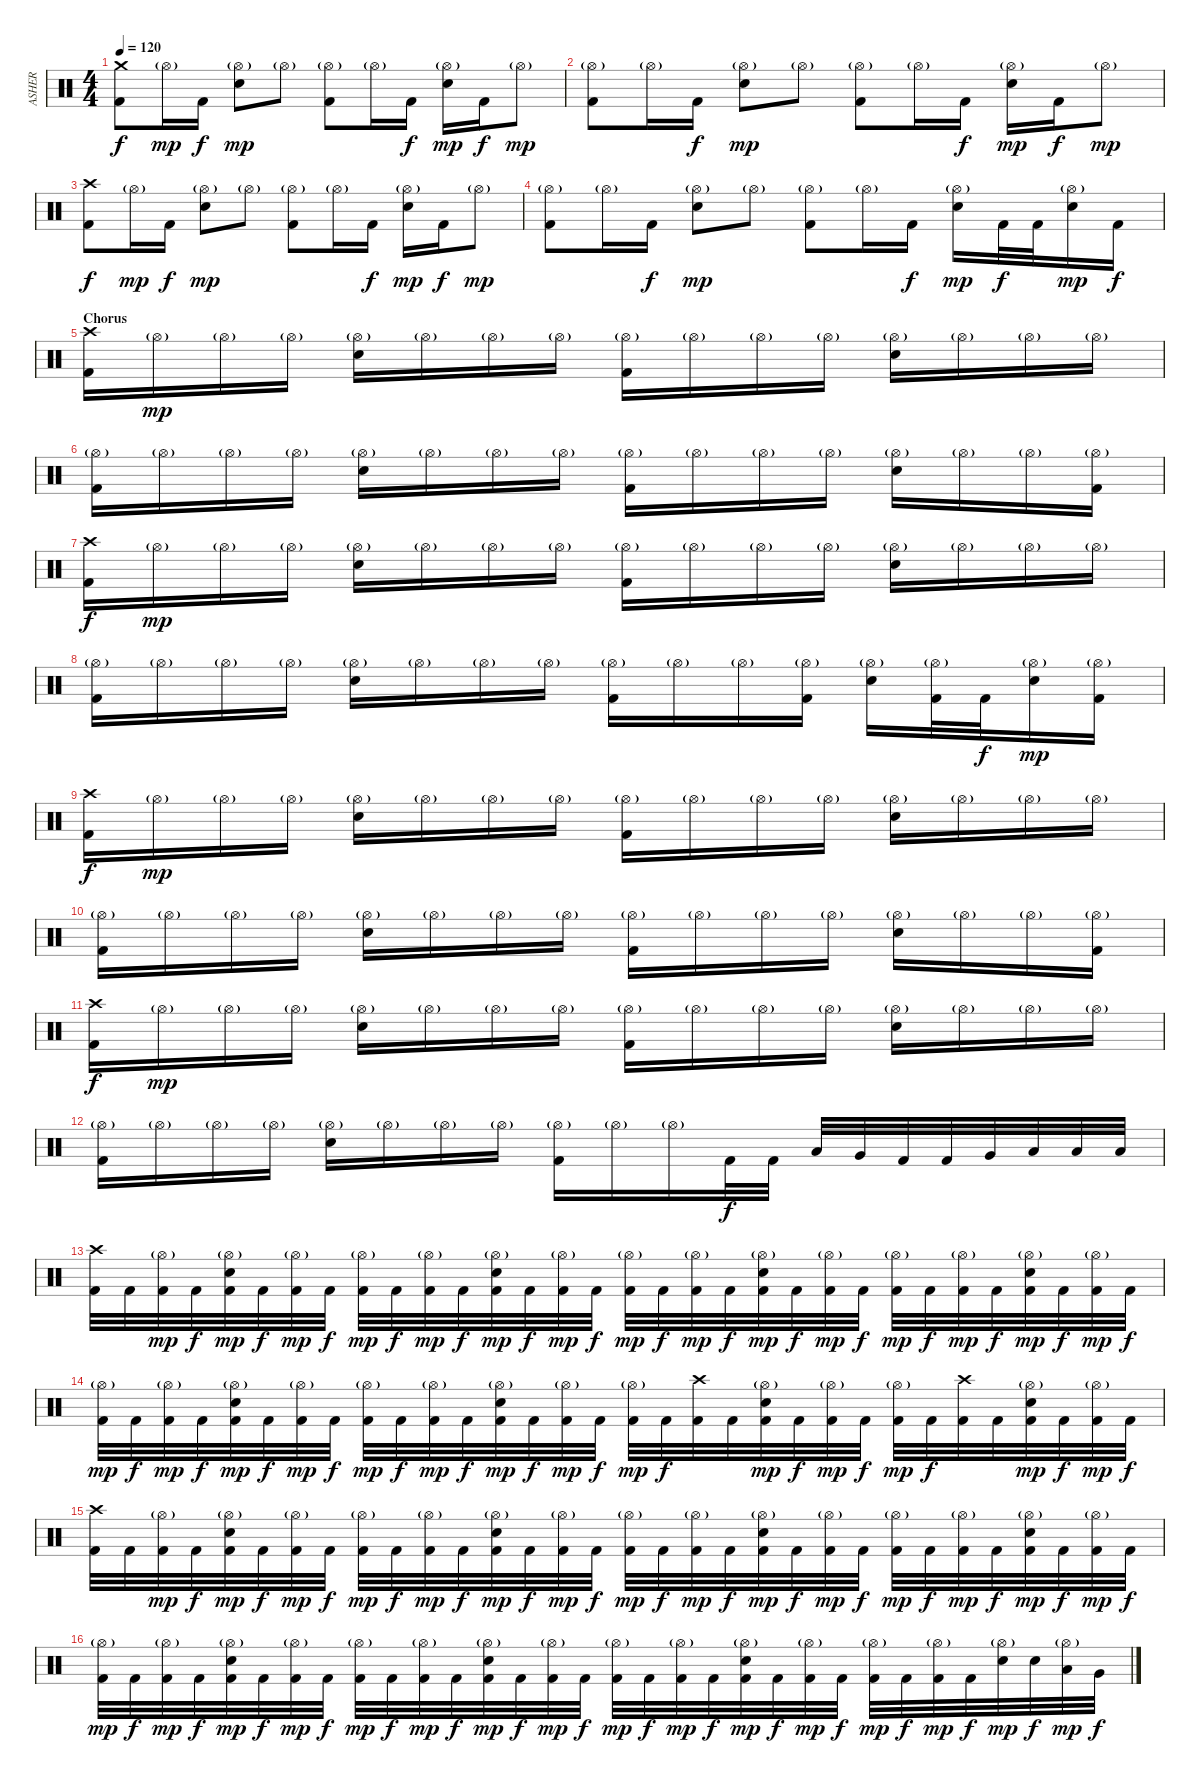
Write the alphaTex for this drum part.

\track ("ASHER" "ASHER") {instrument percussion}
\staff {score}
\articulation defaults
\ts (4 4)
\tempo 120
\clef neutral
\ks c
("Crash medium (hit)" "Kick (hit) 2").8{dy f} "Hi-Hat (open)"{g}.16{dy mp} "Kick (hit) 2".16{dy f} ("Hi-Hat (open)"{g} "Electric Snare (hit)").8{dy mp} "Hi-Hat (open)"{g}.8 ("Hi-Hat (open)"{g} "Kick (hit) 2").8 "Hi-Hat (open)"{g}.16 "Kick (hit) 2".16{dy f} ("Hi-Hat (open)"{g} "Electric Snare (hit)").16{dy mp} "Kick (hit) 2".16{dy f} "Hi-Hat (open)"{g}.8{dy mp} |
("Hi-Hat (open)"{g} "Kick (hit) 2").8 "Hi-Hat (open)"{g}.16 "Kick (hit) 2".16{dy f} ("Hi-Hat (open)"{g} "Electric Snare (hit)").8{dy mp} "Hi-Hat (open)"{g}.8 ("Hi-Hat (open)"{g} "Kick (hit) 2").8 "Hi-Hat (open)"{g}.16 "Kick (hit) 2".16{dy f} ("Hi-Hat (open)"{g} "Electric Snare (hit)").16{dy mp} "Kick (hit) 2".16{dy f} "Hi-Hat (open)"{g}.8{dy mp} |
("Crash high (hit)" "Kick (hit) 2").8{dy f} "Hi-Hat (open)"{g}.16{dy mp} "Kick (hit) 2".16{dy f} ("Hi-Hat (open)"{g} "Electric Snare (hit)").8{dy mp} "Hi-Hat (open)"{g}.8 ("Hi-Hat (open)"{g} "Kick (hit) 2").8 "Hi-Hat (open)"{g}.16 "Kick (hit) 2".16{dy f} ("Hi-Hat (open)"{g} "Electric Snare (hit)").16{dy mp} "Kick (hit) 2".16{dy f} "Hi-Hat (open)"{g}.8{dy mp} |
("Hi-Hat (open)"{g} "Kick (hit) 2").8 "Hi-Hat (open)"{g}.16 "Kick (hit) 2".16{dy f} ("Hi-Hat (open)"{g} "Electric Snare (hit)").8{dy mp} "Hi-Hat (open)"{g}.8 ("Hi-Hat (open)"{g} "Kick (hit) 2").8 "Hi-Hat (open)"{g}.16 "Kick (hit) 2".16{dy f} ("Hi-Hat (open)"{g} "Electric Snare (hit)").16{dy mp} "Kick (hit) 2".32{dy f} "Kick (hit) 2".32 ("Hi-Hat (open)"{g} "Electric Snare (hit)").16{dy mp} "Kick (hit) 2".16{dy f} |
\section ("" "Chorus")
("Crash high (hit)" "Kick (hit) 2").16 "Hi-Hat (open)"{g}.16{dy mp} "Hi-Hat (open)"{g}.16 "Hi-Hat (open)"{g}.16 ("Hi-Hat (open)"{g} "Electric Snare (hit)").16 "Hi-Hat (open)"{g}.16 "Hi-Hat (open)"{g}.16 "Hi-Hat (open)"{g}.16 ("Hi-Hat (open)"{g} "Kick (hit) 2").16 "Hi-Hat (open)"{g}.16 "Hi-Hat (open)"{g}.16 "Hi-Hat (open)"{g}.16 ("Hi-Hat (open)"{g} "Electric Snare (hit)").16 "Hi-Hat (open)"{g}.16 "Hi-Hat (open)"{g}.16 "Hi-Hat (open)"{g}.16 |
("Hi-Hat (open)"{g} "Kick (hit) 2").16 "Hi-Hat (open)"{g}.16 "Hi-Hat (open)"{g}.16 "Hi-Hat (open)"{g}.16 ("Hi-Hat (open)"{g} "Electric Snare (hit)").16 "Hi-Hat (open)"{g}.16 "Hi-Hat (open)"{g}.16 "Hi-Hat (open)"{g}.16 ("Hi-Hat (open)"{g} "Kick (hit) 2").16 "Hi-Hat (open)"{g}.16 "Hi-Hat (open)"{g}.16 "Hi-Hat (open)"{g}.16 ("Hi-Hat (open)"{g} "Electric Snare (hit)").16 "Hi-Hat (open)"{g}.16 "Hi-Hat (open)"{g}.16 ("Hi-Hat (open)"{g} "Kick (hit) 2").16 |
("Crash high (hit)" "Kick (hit) 2").16{dy f} "Hi-Hat (open)"{g}.16{dy mp} "Hi-Hat (open)"{g}.16 "Hi-Hat (open)"{g}.16 ("Hi-Hat (open)"{g} "Electric Snare (hit)").16 "Hi-Hat (open)"{g}.16 "Hi-Hat (open)"{g}.16 "Hi-Hat (open)"{g}.16 ("Hi-Hat (open)"{g} "Kick (hit) 2").16 "Hi-Hat (open)"{g}.16 "Hi-Hat (open)"{g}.16 "Hi-Hat (open)"{g}.16 ("Hi-Hat (open)"{g} "Electric Snare (hit)").16 "Hi-Hat (open)"{g}.16 "Hi-Hat (open)"{g}.16 "Hi-Hat (open)"{g}.16 |
("Hi-Hat (open)"{g} "Kick (hit) 2").16 "Hi-Hat (open)"{g}.16 "Hi-Hat (open)"{g}.16 "Hi-Hat (open)"{g}.16 ("Hi-Hat (open)"{g} "Electric Snare (hit)").16 "Hi-Hat (open)"{g}.16 "Hi-Hat (open)"{g}.16 "Hi-Hat (open)"{g}.16 ("Hi-Hat (open)"{g} "Kick (hit) 2").16 "Hi-Hat (open)"{g}.16 "Hi-Hat (open)"{g}.16 ("Hi-Hat (open)"{g} "Kick (hit) 2").16 ("Hi-Hat (open)"{g} "Electric Snare (hit)").16 ("Hi-Hat (open)"{g} "Kick (hit) 2").32 "Kick (hit) 2".32{dy f} ("Hi-Hat (open)"{g} "Electric Snare (hit)").16{dy mp} ("Hi-Hat (open)"{g} "Kick (hit) 2").16 |
("Crash high (hit)" "Kick (hit) 2").16{dy f} "Hi-Hat (open)"{g}.16{dy mp} "Hi-Hat (open)"{g}.16 "Hi-Hat (open)"{g}.16 ("Hi-Hat (open)"{g} "Electric Snare (hit)").16 "Hi-Hat (open)"{g}.16 "Hi-Hat (open)"{g}.16 "Hi-Hat (open)"{g}.16 ("Hi-Hat (open)"{g} "Kick (hit) 2").16 "Hi-Hat (open)"{g}.16 "Hi-Hat (open)"{g}.16 "Hi-Hat (open)"{g}.16 ("Hi-Hat (open)"{g} "Electric Snare (hit)").16 "Hi-Hat (open)"{g}.16 "Hi-Hat (open)"{g}.16 "Hi-Hat (open)"{g}.16 |
("Hi-Hat (open)"{g} "Kick (hit) 2").16 "Hi-Hat (open)"{g}.16 "Hi-Hat (open)"{g}.16 "Hi-Hat (open)"{g}.16 ("Hi-Hat (open)"{g} "Electric Snare (hit)").16 "Hi-Hat (open)"{g}.16 "Hi-Hat (open)"{g}.16 "Hi-Hat (open)"{g}.16 ("Hi-Hat (open)"{g} "Kick (hit) 2").16 "Hi-Hat (open)"{g}.16 "Hi-Hat (open)"{g}.16 "Hi-Hat (open)"{g}.16 ("Hi-Hat (open)"{g} "Electric Snare (hit)").16 "Hi-Hat (open)"{g}.16 "Hi-Hat (open)"{g}.16 ("Hi-Hat (open)"{g} "Kick (hit) 2").16 |
("Crash high (hit)" "Kick (hit) 2").16{dy f} "Hi-Hat (open)"{g}.16{dy mp} "Hi-Hat (open)"{g}.16 "Hi-Hat (open)"{g}.16 ("Hi-Hat (open)"{g} "Electric Snare (hit)").16 "Hi-Hat (open)"{g}.16 "Hi-Hat (open)"{g}.16 "Hi-Hat (open)"{g}.16 ("Hi-Hat (open)"{g} "Kick (hit) 2").16 "Hi-Hat (open)"{g}.16 "Hi-Hat (open)"{g}.16 "Hi-Hat (open)"{g}.16 ("Hi-Hat (open)"{g} "Electric Snare (hit)").16 "Hi-Hat (open)"{g}.16 "Hi-Hat (open)"{g}.16 "Hi-Hat (open)"{g}.16 |
("Hi-Hat (open)"{g} "Kick (hit) 2").16 "Hi-Hat (open)"{g}.16 "Hi-Hat (open)"{g}.16 "Hi-Hat (open)"{g}.16 ("Hi-Hat (open)"{g} "Electric Snare (hit)").16 "Hi-Hat (open)"{g}.16 "Hi-Hat (open)"{g}.16 "Hi-Hat (open)"{g}.16 ("Hi-Hat (open)"{g} "Kick (hit) 2").16 "Hi-Hat (open)"{g}.16 "Hi-Hat (open)"{g}.16 "Kick (hit) 2".32{dy f} "Kick (hit) 2".32 "Low Tom (hit)".32 "Very Low Tom (hit)".32 "Kick (hit) 2".32 "Kick (hit) 2".32 "Very Low Tom (hit)".32 "Low Floor Tom (hit)".32 "Low Floor Tom (hit)".32 "Low Floor Tom (hit)".32 |
("Crash high (hit)" "Kick (hit) 2").32 "Kick (hit) 2".32 ("Hi-Hat (open)"{g} "Kick (hit) 2").32{dy mp} "Kick (hit) 2".32{dy f} ("Hi-Hat (open)"{g} "Electric Snare (hit)" "Kick (hit) 2").32{dy mp} "Kick (hit) 2".32{dy f} ("Hi-Hat (open)"{g} "Kick (hit) 2").32{dy mp} "Kick (hit) 2".32{dy f} ("Hi-Hat (open)"{g} "Kick (hit) 2").32{dy mp} "Kick (hit) 2".32{dy f} ("Hi-Hat (open)"{g} "Kick (hit) 2").32{dy mp} "Kick (hit) 2".32{dy f} ("Hi-Hat (open)"{g} "Electric Snare (hit)" "Kick (hit) 2").32{dy mp} "Kick (hit) 2".32{dy f} ("Hi-Hat (open)"{g} "Kick (hit) 2").32{dy mp} "Kick (hit) 2".32{dy f} ("Hi-Hat (open)"{g} "Kick (hit) 2").32{dy mp} "Kick (hit) 2".32{dy f} ("Hi-Hat (open)"{g} "Kick (hit) 2").32{dy mp} "Kick (hit) 2".32{dy f} ("Hi-Hat (open)"{g} "Electric Snare (hit)" "Kick (hit) 2").32{dy mp} "Kick (hit) 2".32{dy f} ("Hi-Hat (open)"{g} "Kick (hit) 2").32{dy mp} "Kick (hit) 2".32{dy f} ("Hi-Hat (open)"{g} "Kick (hit) 2").32{dy mp} "Kick (hit) 2".32{dy f} ("Hi-Hat (open)"{g} "Kick (hit) 2").32{dy mp} "Kick (hit) 2".32{dy f} ("Hi-Hat (open)"{g} "Electric Snare (hit)" "Kick (hit) 2").32{dy mp} "Kick (hit) 2".32{dy f} ("Hi-Hat (open)"{g} "Kick (hit) 2").32{dy mp} "Kick (hit) 2".32{dy f} |
("Hi-Hat (open)"{g} "Kick (hit) 2").32{dy mp} "Kick (hit) 2".32{dy f} ("Hi-Hat (open)"{g} "Kick (hit) 2").32{dy mp} "Kick (hit) 2".32{dy f} ("Hi-Hat (open)"{g} "Electric Snare (hit)" "Kick (hit) 2").32{dy mp} "Kick (hit) 2".32{dy f} ("Hi-Hat (open)"{g} "Kick (hit) 2").32{dy mp} "Kick (hit) 2".32{dy f} ("Hi-Hat (open)"{g} "Kick (hit) 2").32{dy mp} "Kick (hit) 2".32{dy f} ("Hi-Hat (open)"{g} "Kick (hit) 2").32{dy mp} "Kick (hit) 2".32{dy f} ("Hi-Hat (open)"{g} "Electric Snare (hit)" "Kick (hit) 2").32{dy mp} "Kick (hit) 2".32{dy f} ("Hi-Hat (open)"{g} "Kick (hit) 2").32{dy mp} "Kick (hit) 2".32{dy f} ("Hi-Hat (open)"{g} "Kick (hit) 2").32{dy mp} "Kick (hit) 2".32{dy f} ("Crash high (hit)" "Kick (hit) 2").32 "Kick (hit) 2".32 ("Hi-Hat (open)"{g} "Electric Snare (hit)" "Kick (hit) 2").32{dy mp} "Kick (hit) 2".32{dy f} ("Hi-Hat (open)"{g} "Kick (hit) 2").32{dy mp} "Kick (hit) 2".32{dy f} ("Hi-Hat (open)"{g} "Kick (hit) 2").32{dy mp} "Kick (hit) 2".32{dy f} ("Crash high (hit)" "Kick (hit) 2").32 "Kick (hit) 2".32 ("Hi-Hat (open)"{g} "Electric Snare (hit)" "Kick (hit) 2").32{dy mp} "Kick (hit) 2".32{dy f} ("Hi-Hat (open)"{g} "Kick (hit) 2").32{dy mp} "Kick (hit) 2".32{dy f} |
("Crash high (hit)" "Kick (hit) 2").32 "Kick (hit) 2".32 ("Hi-Hat (open)"{g} "Kick (hit) 2").32{dy mp} "Kick (hit) 2".32{dy f} ("Hi-Hat (open)"{g} "Electric Snare (hit)" "Kick (hit) 2").32{dy mp} "Kick (hit) 2".32{dy f} ("Hi-Hat (open)"{g} "Kick (hit) 2").32{dy mp} "Kick (hit) 2".32{dy f} ("Hi-Hat (open)"{g} "Kick (hit) 2").32{dy mp} "Kick (hit) 2".32{dy f} ("Hi-Hat (open)"{g} "Kick (hit) 2").32{dy mp} "Kick (hit) 2".32{dy f} ("Hi-Hat (open)"{g} "Electric Snare (hit)" "Kick (hit) 2").32{dy mp} "Kick (hit) 2".32{dy f} ("Hi-Hat (open)"{g} "Kick (hit) 2").32{dy mp} "Kick (hit) 2".32{dy f} ("Hi-Hat (open)"{g} "Kick (hit) 2").32{dy mp} "Kick (hit) 2".32{dy f} ("Hi-Hat (open)"{g} "Kick (hit) 2").32{dy mp} "Kick (hit) 2".32{dy f} ("Hi-Hat (open)"{g} "Electric Snare (hit)" "Kick (hit) 2").32{dy mp} "Kick (hit) 2".32{dy f} ("Hi-Hat (open)"{g} "Kick (hit) 2").32{dy mp} "Kick (hit) 2".32{dy f} ("Hi-Hat (open)"{g} "Kick (hit) 2").32{dy mp} "Kick (hit) 2".32{dy f} ("Hi-Hat (open)"{g} "Kick (hit) 2").32{dy mp} "Kick (hit) 2".32{dy f} ("Hi-Hat (open)"{g} "Electric Snare (hit)" "Kick (hit) 2").32{dy mp} "Kick (hit) 2".32{dy f} ("Hi-Hat (open)"{g} "Kick (hit) 2").32{dy mp} "Kick (hit) 2".32{dy f} |
("Hi-Hat (open)"{g} "Kick (hit) 2").32{dy mp} "Kick (hit) 2".32{dy f} ("Hi-Hat (open)"{g} "Kick (hit) 2").32{dy mp} "Kick (hit) 2".32{dy f} ("Hi-Hat (open)"{g} "Electric Snare (hit)" "Kick (hit) 2").32{dy mp} "Kick (hit) 2".32{dy f} ("Hi-Hat (open)"{g} "Kick (hit) 2").32{dy mp} "Kick (hit) 2".32{dy f} ("Hi-Hat (open)"{g} "Kick (hit) 2").32{dy mp} "Kick (hit) 2".32{dy f} ("Hi-Hat (open)"{g} "Kick (hit) 2").32{dy mp} "Kick (hit) 2".32{dy f} ("Hi-Hat (open)"{g} "Electric Snare (hit)" "Kick (hit) 2").32{dy mp} "Kick (hit) 2".32{dy f} ("Hi-Hat (open)"{g} "Kick (hit) 2").32{dy mp} "Kick (hit) 2".32{dy f} ("Hi-Hat (open)"{g} "Kick (hit) 2").32{dy mp} "Kick (hit) 2".32{dy f} ("Hi-Hat (open)"{g} "Kick (hit) 2").32{dy mp} "Kick (hit) 2".32{dy f} ("Hi-Hat (open)"{g} "Electric Snare (hit)" "Kick (hit) 2").32{dy mp} "Kick (hit) 2".32{dy f} ("Hi-Hat (open)"{g} "Kick (hit) 2").32{dy mp} "Kick (hit) 2".32{dy f} ("Hi-Hat (open)"{g} "Kick (hit) 2").32{dy mp} "Kick (hit) 2".32{dy f} ("Hi-Hat (open)"{g} "Kick (hit) 2").32{dy mp} "Kick (hit) 2".32{dy f} ("Hi-Hat (open)"{g} "Electric Snare (hit)").32{dy mp} "Electric Snare (hit)".32{dy f} ("Hi-Hat (open)"{g} "Low Tom (hit)").32{dy mp} "Very Low Tom (hit)".32{dy f}
